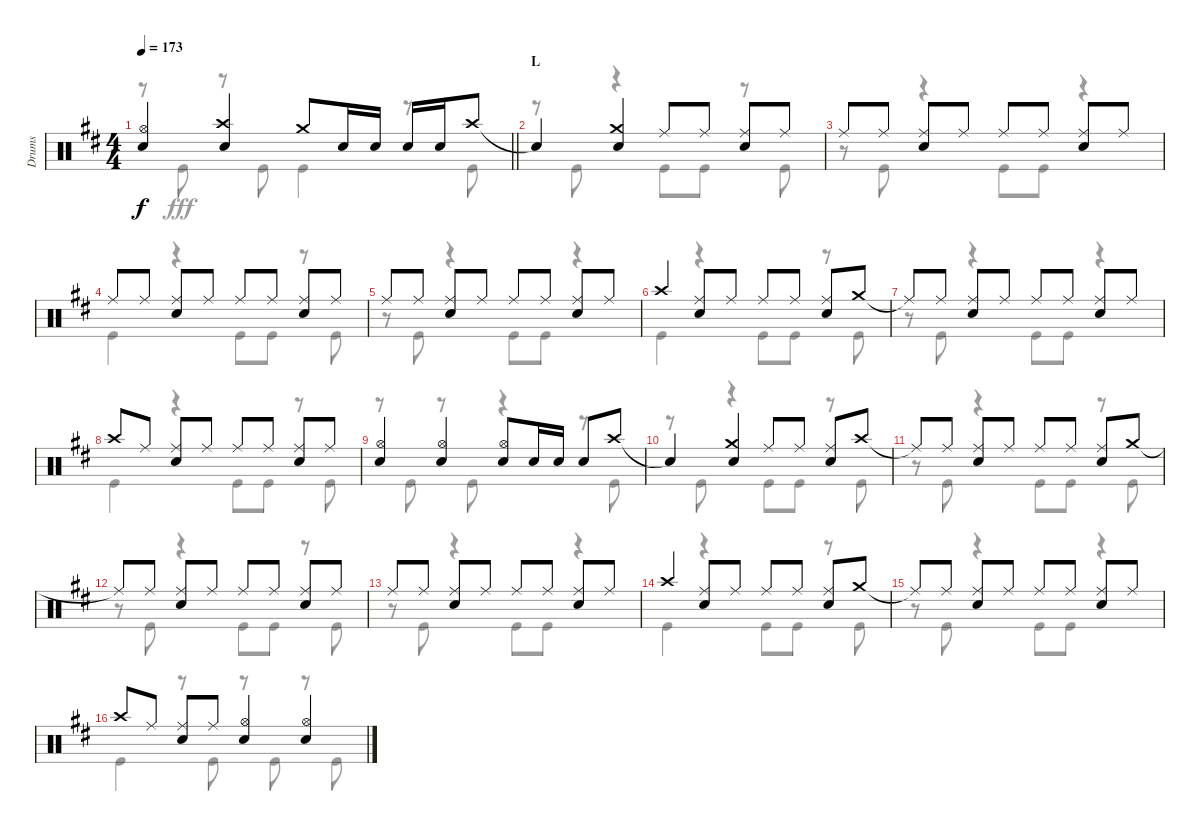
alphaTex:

\track ("Drums" "Drums") {instrument percussion}
\staff {score}
\articulation defaults
\voice
\ts (4 4)
\tempo 173
\clef neutral
\barLineRight lightlight
\ks d
("Hi-Hat (open)" "Snare (hit) 2").4{dy f} ("Crash high (hit)" "Snare (hit) 2").4 "Crash medium (hit)".8 "Snare (hit) 2".16 "Snare (hit) 2".16 "Snare (hit) 2".16 "Snare (hit) 2".16 "Crash high (hit)".8 |
\section ("" "L")
"Snare (hit)"{t}.4 ("Crash medium (hit)" "Snare (hit) 2").4 "Ride (middle)".8 "Ride (middle)".8 ("Ride (middle)" "Snare (hit) 2").8 "Ride (middle)".8 |
"Ride (middle)".8 "Ride (middle)".8 ("Ride (middle)" "Snare (hit) 2").8 "Ride (middle)".8 "Ride (middle)".8 "Ride (middle)".8 ("Ride (middle)" "Snare (hit) 2").8 "Ride (middle)".8 |
"Ride (middle)".8 "Ride (middle)".8 ("Ride (middle)" "Snare (hit) 2").8 "Ride (middle)".8 "Ride (middle)".8 "Ride (middle)".8 ("Ride (middle)" "Snare (hit) 2").8 "Ride (middle)".8 |
"Ride (middle)".8 "Ride (middle)".8 ("Ride (middle)" "Snare (hit) 2").8 "Ride (middle)".8 "Ride (middle)".8 "Ride (middle)".8 ("Ride (middle)" "Snare (hit) 2").8 "Ride (middle)".8 |
"Crash high (hit)".4 ("Ride (middle)" "Snare (hit) 2").8 "Ride (middle)".8 "Ride (middle)".8 "Ride (middle)".8 ("Ride (middle)" "Snare (hit) 2").8 "Crash medium (hit)".8 |
"Ride (middle)"{t}.8 "Ride (middle)".8 ("Ride (middle)" "Snare (hit) 2").8 "Ride (middle)".8 "Ride (middle)".8 "Ride (middle)".8 ("Ride (middle)" "Snare (hit) 2").8 "Ride (middle)".8 |
"Crash high (hit)".8 "Ride (middle)".8 ("Ride (middle)" "Snare (hit) 2").8 "Ride (middle)".8 "Ride (middle)".8 "Ride (middle)".8 ("Ride (middle)" "Snare (hit) 2").8 "Ride (middle)".8 |
("Hi-Hat (open)" "Snare (hit) 2").4 ("Hi-Hat (open)" "Snare (hit) 2").4 ("Hi-Hat (open)" "Snare (hit) 2").8 "Snare (hit) 2".16 "Snare (hit) 2".16 "Snare (hit) 2".8 "Crash high (hit)".8 |
"Snare (hit)"{t}.4 ("Crash medium (hit)" "Snare (hit) 2").4 "Ride (middle)".8 "Ride (middle)".8 ("Ride (middle)" "Snare (hit) 2").8 "Crash high (hit)".8 |
"Ride (middle)"{t}.8 "Ride (middle)".8 ("Ride (middle)" "Snare (hit) 2").8 "Ride (middle)".8 "Ride (middle)".8 "Ride (middle)".8 ("Ride (middle)" "Snare (hit) 2").8 "Crash medium (hit)".8 |
"Ride (middle)"{t}.8 "Ride (middle)".8 ("Ride (middle)" "Snare (hit) 2").8 "Ride (middle)".8 "Ride (middle)".8 "Ride (middle)".8 ("Ride (middle)" "Snare (hit) 2").8 "Ride (middle)".8 |
"Ride (middle)".8 "Ride (middle)".8 ("Ride (middle)" "Snare (hit) 2").8 "Ride (middle)".8 "Ride (middle)".8 "Ride (middle)".8 ("Ride (middle)" "Snare (hit) 2").8 "Ride (middle)".8 |
"Crash high (hit)".4 ("Ride (middle)" "Snare (hit) 2").8 "Ride (middle)".8 "Ride (middle)".8 "Ride (middle)".8 ("Ride (middle)" "Snare (hit) 2").8 "Crash medium (hit)".8 |
"Ride (middle)"{t}.8 "Ride (middle)".8 ("Ride (middle)" "Snare (hit) 2").8 "Ride (middle)".8 "Ride (middle)".8 "Ride (middle)".8 ("Ride (middle)" "Snare (hit) 2").8 "Ride (middle)".8 |
"Crash high (hit)".8 "Ride (middle)".8 ("Ride (middle)" "Snare (hit) 2").8 "Ride (middle)".8 ("Hi-Hat (open)" "Snare (hit) 2").4 ("Hi-Hat (open)" "Snare (hit) 2").4
\voice
\clef neutral
\ottava regular
\simile none
\barLineRight lightlight
\ks d
r.8{dy fff} "Kick (hit)".8 r.8 "Kick (hit)".8 "Kick (hit)".4 r.8 "Kick (hit)".8 |
r.8 "Kick (hit)".8 r.4 "Kick (hit)".8 "Kick (hit)".8 r.8 "Kick (hit)".8 |
r.8 "Kick (hit)".8 r.4 "Kick (hit)".8 "Kick (hit)".8 r.4 |
"Kick (hit)".4 r.4 "Kick (hit)".8 "Kick (hit)".8 r.8 "Kick (hit)".8 |
r.8 "Kick (hit)".8 r.4 "Kick (hit)".8 "Kick (hit)".8 r.4 |
"Kick (hit)".4 r.4 "Kick (hit)".8 "Kick (hit)".8 r.8 "Kick (hit)".8 |
r.8 "Kick (hit)".8 r.4 "Kick (hit)".8 "Kick (hit)".8 r.4 |
"Kick (hit)".4 r.4 "Kick (hit)".8 "Kick (hit)".8 r.8 "Kick (hit)".8 |
r.8 "Kick (hit)".8 r.8 "Kick (hit)".8 r.4 r.8 "Kick (hit)".8 |
r.8 "Kick (hit)".8 r.4 "Kick (hit)".8 "Kick (hit)".8 r.8 "Kick (hit)".8 |
r.8 "Kick (hit)".8 r.4 "Kick (hit)".8 "Kick (hit)".8 r.8 "Kick (hit)".8 |
r.8 "Kick (hit)".8 r.4 "Kick (hit)".8 "Kick (hit)".8 r.8 "Kick (hit)".8 |
r.8 "Kick (hit)".8 r.4 "Kick (hit)".8 "Kick (hit)".8 r.4 |
"Kick (hit)".4 r.4 "Kick (hit)".8 "Kick (hit)".8 r.8 "Kick (hit)".8 |
r.8 "Kick (hit)".8 r.4 "Kick (hit)".8 "Kick (hit)".8 r.4 |
"Kick (hit)".4 r.8 "Kick (hit)".8 r.8 "Kick (hit)".8 r.8 "Kick (hit)".8
